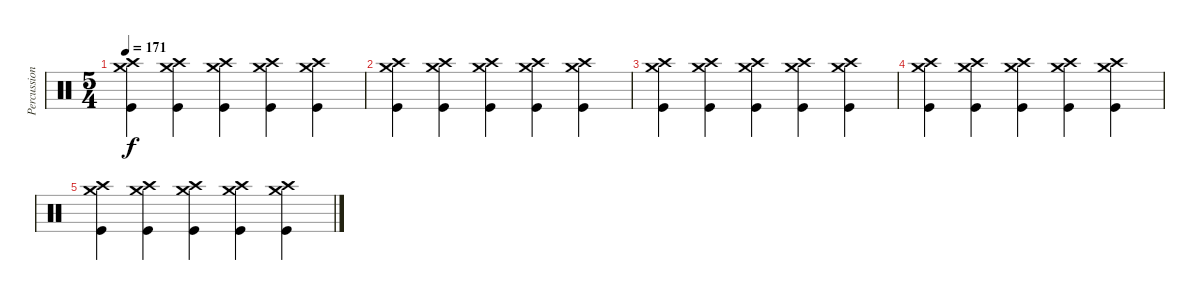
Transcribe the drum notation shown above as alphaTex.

\track ("Percussions" "Percussion") {instrument percussion}
\staff {score}
\articulation defaults
\ts (5 4)
\tempo 171
\clef neutral
\ks c
("Crash high (hit)" "Crash medium (hit)" "Kick (hit)").4{dy f} ("Crash high (hit)" "Crash medium (hit)" "Kick (hit)").4 ("Crash high (hit)" "Crash medium (hit)" "Kick (hit)").4 ("Crash high (hit)" "Crash medium (hit)" "Kick (hit)").4 ("Crash high (hit)" "Crash medium (hit)" "Kick (hit)").4 |
("Crash high (hit)" "Crash medium (hit)" "Kick (hit)").4 ("Crash high (hit)" "Crash medium (hit)" "Kick (hit)").4 ("Crash high (hit)" "Crash medium (hit)" "Kick (hit)").4 ("Crash high (hit)" "Crash medium (hit)" "Kick (hit)").4 ("Crash high (hit)" "Crash medium (hit)" "Kick (hit)").4 |
("Crash high (hit)" "Crash medium (hit)" "Kick (hit)").4 ("Crash high (hit)" "Crash medium (hit)" "Kick (hit)").4 ("Crash high (hit)" "Crash medium (hit)" "Kick (hit)").4 ("Crash high (hit)" "Crash medium (hit)" "Kick (hit)").4 ("Crash high (hit)" "Crash medium (hit)" "Kick (hit)").4 |
("Crash high (hit)" "Crash medium (hit)" "Kick (hit)").4 ("Crash high (hit)" "Crash medium (hit)" "Kick (hit)").4 ("Crash high (hit)" "Crash medium (hit)" "Kick (hit)").4 ("Crash high (hit)" "Crash medium (hit)" "Kick (hit)").4 ("Crash high (hit)" "Crash medium (hit)" "Kick (hit)").4 |
("Crash high (hit)" "Crash medium (hit)" "Kick (hit)").4 ("Crash high (hit)" "Crash medium (hit)" "Kick (hit)").4 ("Crash high (hit)" "Crash medium (hit)" "Kick (hit)").4 ("Crash high (hit)" "Crash medium (hit)" "Kick (hit)").4 ("Crash high (hit)" "Crash medium (hit)" "Kick (hit)").4
